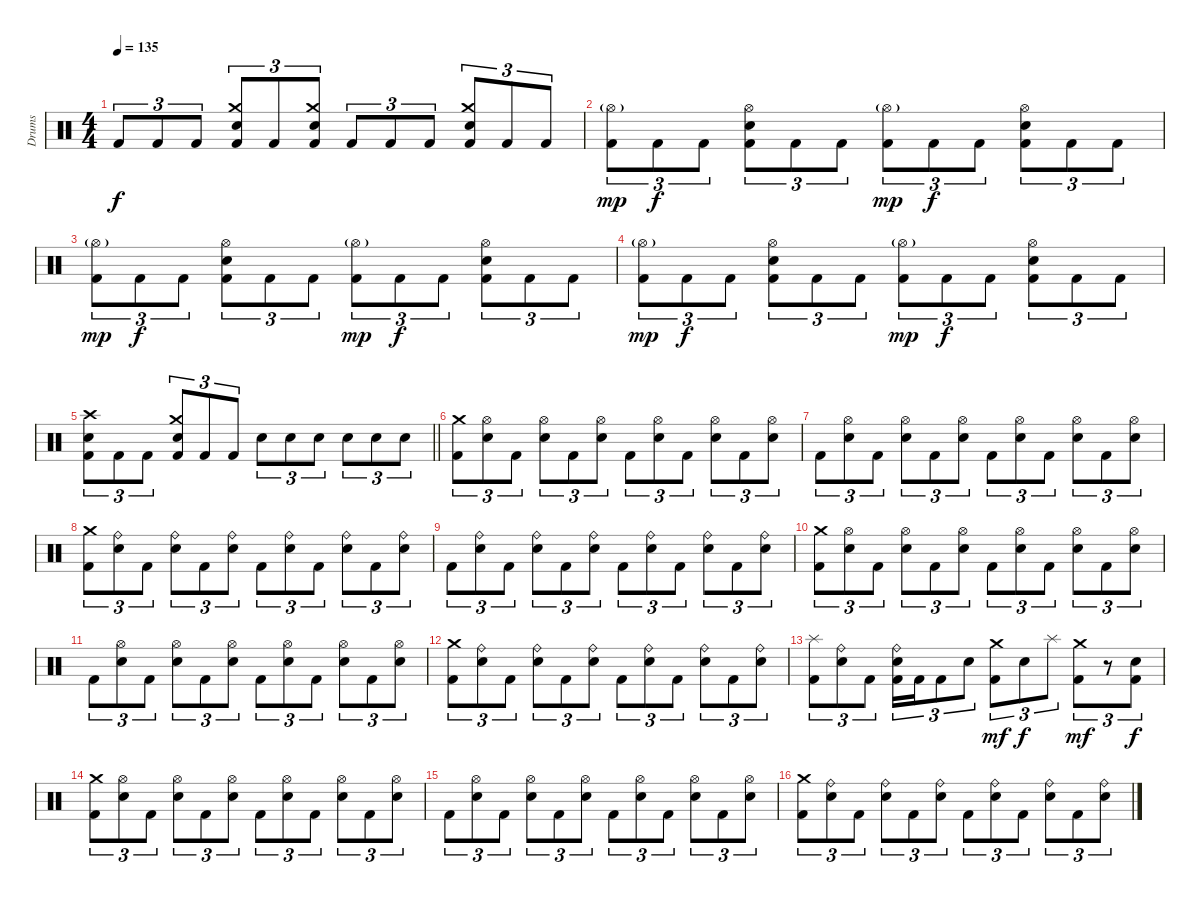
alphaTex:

\track ("Drums" "Drums") {instrument percussion}
\staff {score}
\articulation defaults
\ts (4 4)
\tempo 135
\clef neutral
\ks c "Kick (hit) 2".8{tu (3 2) dy f} "Kick (hit) 2".8{tu (3 2)} "Kick (hit) 2".8{tu (3 2)}
("Crash medium (hit)" "Electric Snare (hit)" "Kick (hit) 2").8{tu (3 2)} "Kick (hit) 2".8{tu (3 2)} ("Crash medium (hit)" "Electric Snare (hit)" "Kick (hit) 2").8{tu (3 2)} "Kick (hit) 2".8{tu (3 2)} "Kick (hit) 2".8{tu (3 2)} "Kick (hit) 2".8{tu (3 2)} ("Crash medium (hit)" "Electric Snare (hit)" "Kick (hit) 2").8{tu (3 2)} "Kick (hit) 2".8{tu (3 2)} "Kick (hit) 2".8{tu (3 2)} |
("Hi-Hat (open)"{g} "Kick (hit) 2").8{tu (3 2) dy mp} "Kick (hit) 2".8{tu (3 2) dy f} "Kick (hit) 2".8{tu (3 2)} ("Hi-Hat (open)" "Electric Snare (hit)" "Kick (hit) 2").8{tu (3 2)} "Kick (hit) 2".8{tu (3 2)} "Kick (hit) 2".8{tu (3 2)} ("Hi-Hat (open)"{g} "Kick (hit) 2").8{tu (3 2) dy mp} "Kick (hit) 2".8{tu (3 2) dy f} "Kick (hit) 2".8{tu (3 2)} ("Hi-Hat (open)" "Electric Snare (hit)" "Kick (hit) 2").8{tu (3 2)} "Kick (hit) 2".8{tu (3 2)} "Kick (hit) 2".8{tu (3 2)} |
("Hi-Hat (open)"{g} "Kick (hit) 2").8{tu (3 2) dy mp} "Kick (hit) 2".8{tu (3 2) dy f} "Kick (hit) 2".8{tu (3 2)} ("Hi-Hat (open)" "Electric Snare (hit)" "Kick (hit) 2").8{tu (3 2)} "Kick (hit) 2".8{tu (3 2)} "Kick (hit) 2".8{tu (3 2)} ("Hi-Hat (open)"{g} "Kick (hit) 2").8{tu (3 2) dy mp} "Kick (hit) 2".8{tu (3 2) dy f} "Kick (hit) 2".8{tu (3 2)} ("Hi-Hat (open)" "Electric Snare (hit)" "Kick (hit) 2").8{tu (3 2)} "Kick (hit) 2".8{tu (3 2)} "Kick (hit) 2".8{tu (3 2)} |
("Hi-Hat (open)"{g} "Kick (hit) 2").8{tu (3 2) dy mp} "Kick (hit) 2".8{tu (3 2) dy f} "Kick (hit) 2".8{tu (3 2)} ("Hi-Hat (open)" "Electric Snare (hit)" "Kick (hit) 2").8{tu (3 2)} "Kick (hit) 2".8{tu (3 2)} "Kick (hit) 2".8{tu (3 2)} ("Hi-Hat (open)"{g} "Kick (hit) 2").8{tu (3 2) dy mp} "Kick (hit) 2".8{tu (3 2) dy f} "Kick (hit) 2".8{tu (3 2)} ("Hi-Hat (open)" "Electric Snare (hit)" "Kick (hit) 2").8{tu (3 2)} "Kick (hit) 2".8{tu (3 2)} "Kick (hit) 2".8{tu (3 2)} |
\barLineRight lightlight
("Crash high (hit)" "Electric Snare (hit)" "Kick (hit) 2").8{tu (3 2)} "Kick (hit) 2".8{tu (3 2)} "Kick (hit) 2".8{tu (3 2)} ("Crash medium (hit)" "Electric Snare (hit)" "Kick (hit) 2").8{tu (3 2)} "Kick (hit) 2".8{tu (3 2)} "Kick (hit) 2".8{tu (3 2)} "Electric Snare (hit)".8{tu (3 2)} "Electric Snare (hit)".8{tu (3 2)} "Electric Snare (hit)".8{tu (3 2)} "Electric Snare (hit)".8{tu (3 2)} "Electric Snare (hit)".8{tu (3 2)} "Electric Snare (hit)".8{tu (3 2)} |
("Crash medium (hit)" "Kick (hit) 2").8{tu (3 2)} ("Hi-Hat (open)" "Electric Snare (hit)").8{tu (3 2)} "Kick (hit) 2".8{tu (3 2)} ("Hi-Hat (open)" "Electric Snare (hit)").8{tu (3 2)} "Kick (hit) 2".8{tu (3 2)} ("Hi-Hat (open)" "Electric Snare (hit)").8{tu (3 2)} "Kick (hit) 2".8{tu (3 2)} ("Hi-Hat (open)" "Electric Snare (hit)").8{tu (3 2)} "Kick (hit) 2".8{tu (3 2)} ("Hi-Hat (open)" "Electric Snare (hit)").8{tu (3 2)} "Kick (hit) 2".8{tu (3 2)} ("Hi-Hat (open)" "Electric Snare (hit)").8{tu (3 2)} |
"Kick (hit) 2".8{tu (3 2)} ("Hi-Hat (open)" "Electric Snare (hit)").8{tu (3 2)} "Kick (hit) 2".8{tu (3 2)} ("Hi-Hat (open)" "Electric Snare (hit)").8{tu (3 2)} "Kick (hit) 2".8{tu (3 2)} ("Hi-Hat (open)" "Electric Snare (hit)").8{tu (3 2)} "Kick (hit) 2".8{tu (3 2)} ("Hi-Hat (open)" "Electric Snare (hit)").8{tu (3 2)} "Kick (hit) 2".8{tu (3 2)} ("Hi-Hat (open)" "Electric Snare (hit)").8{tu (3 2)} "Kick (hit) 2".8{tu (3 2)} ("Hi-Hat (open)" "Electric Snare (hit)").8{tu (3 2)} |
("Crash medium (hit)" "Kick (hit) 2").8{tu (3 2)} ("Ride (bell)" "Electric Snare (hit)").8{tu (3 2)} "Kick (hit) 2".8{tu (3 2)} ("Ride (bell)" "Electric Snare (hit)").8{tu (3 2)} "Kick (hit) 2".8{tu (3 2)} ("Ride (bell)" "Electric Snare (hit)").8{tu (3 2)} "Kick (hit) 2".8{tu (3 2)} ("Ride (bell)" "Electric Snare (hit)").8{tu (3 2)} "Kick (hit) 2".8{tu (3 2)} ("Ride (bell)" "Electric Snare (hit)").8{tu (3 2)} "Kick (hit) 2".8{tu (3 2)} ("Ride (bell)" "Electric Snare (hit)").8{tu (3 2)} |
"Kick (hit) 2".8{tu (3 2)} ("Ride (bell)" "Electric Snare (hit)").8{tu (3 2)} "Kick (hit) 2".8{tu (3 2)} ("Ride (bell)" "Electric Snare (hit)").8{tu (3 2)} "Kick (hit) 2".8{tu (3 2)} ("Ride (bell)" "Electric Snare (hit)").8{tu (3 2)} "Kick (hit) 2".8{tu (3 2)} ("Ride (bell)" "Electric Snare (hit)").8{tu (3 2)} "Kick (hit) 2".8{tu (3 2)} ("Ride (bell)" "Electric Snare (hit)").8{tu (3 2)} "Kick (hit) 2".8{tu (3 2)} ("Ride (bell)" "Electric Snare (hit)").8{tu (3 2)} |
("Crash medium (hit)" "Kick (hit) 2").8{tu (3 2)} ("Hi-Hat (open)" "Electric Snare (hit)").8{tu (3 2)} "Kick (hit) 2".8{tu (3 2)} ("Hi-Hat (open)" "Electric Snare (hit)").8{tu (3 2)} "Kick (hit) 2".8{tu (3 2)} ("Hi-Hat (open)" "Electric Snare (hit)").8{tu (3 2)} "Kick (hit) 2".8{tu (3 2)} ("Hi-Hat (open)" "Electric Snare (hit)").8{tu (3 2)} "Kick (hit) 2".8{tu (3 2)} ("Hi-Hat (open)" "Electric Snare (hit)").8{tu (3 2)} "Kick (hit) 2".8{tu (3 2)} ("Hi-Hat (open)" "Electric Snare (hit)").8{tu (3 2)} |
"Kick (hit) 2".8{tu (3 2)} ("Hi-Hat (open)" "Electric Snare (hit)").8{tu (3 2)} "Kick (hit) 2".8{tu (3 2)} ("Hi-Hat (open)" "Electric Snare (hit)").8{tu (3 2)} "Kick (hit) 2".8{tu (3 2)} ("Hi-Hat (open)" "Electric Snare (hit)").8{tu (3 2)} "Kick (hit) 2".8{tu (3 2)} ("Hi-Hat (open)" "Electric Snare (hit)").8{tu (3 2)} "Kick (hit) 2".8{tu (3 2)} ("Hi-Hat (open)" "Electric Snare (hit)").8{tu (3 2)} "Kick (hit) 2".8{tu (3 2)} ("Hi-Hat (open)" "Electric Snare (hit)").8{tu (3 2)} |
("Crash medium (hit)" "Kick (hit) 2").8{tu (3 2)} ("Ride (bell)" "Electric Snare (hit)").8{tu (3 2)} "Kick (hit) 2".8{tu (3 2)} ("Ride (bell)" "Electric Snare (hit)").8{tu (3 2)} "Kick (hit) 2".8{tu (3 2)} ("Ride (bell)" "Electric Snare (hit)").8{tu (3 2)} "Kick (hit) 2".8{tu (3 2)} ("Ride (bell)" "Electric Snare (hit)").8{tu (3 2)} "Kick (hit) 2".8{tu (3 2)} ("Ride (bell)" "Electric Snare (hit)").8{tu (3 2)} "Kick (hit) 2".8{tu (3 2)} ("Ride (bell)" "Electric Snare (hit)").8{tu (3 2)} |
("Splash (hit)" "Kick (hit) 2").8{tu (3 2)} ("Ride (bell)" "Electric Snare (hit)").8{tu (3 2)} "Kick (hit) 2".8{tu (3 2)} ("Ride (bell)" "Electric Snare (hit)" "Kick (hit) 2").16{tu (3 2)} "Kick (hit) 2".16{tu (3 2)} "Kick (hit) 2".8{tu (3 2)} "Electric Snare (hit)".8{tu (3 2)} ("Crash medium (hit)" "Kick (hit) 2").8{tu (3 2) dy mf} "Electric Snare (hit)".8{tu (3 2) dy f} "Splash (hit)".8{tu (3 2)} ("Crash medium (hit)" "Kick (hit) 2").8{tu (3 2) dy mf} r.8{tu (3 2)} ("Electric Snare (hit)" "Kick (hit) 2").8{tu (3 2) dy f} |
("Crash medium (hit)" "Kick (hit) 2").8{tu (3 2)} ("Hi-Hat (open)" "Electric Snare (hit)").8{tu (3 2)} "Kick (hit) 2".8{tu (3 2)} ("Hi-Hat (open)" "Electric Snare (hit)").8{tu (3 2)} "Kick (hit) 2".8{tu (3 2)} ("Hi-Hat (open)" "Electric Snare (hit)").8{tu (3 2)} "Kick (hit) 2".8{tu (3 2)} ("Hi-Hat (open)" "Electric Snare (hit)").8{tu (3 2)} "Kick (hit) 2".8{tu (3 2)} ("Hi-Hat (open)" "Electric Snare (hit)").8{tu (3 2)} "Kick (hit) 2".8{tu (3 2)} ("Hi-Hat (open)" "Electric Snare (hit)").8{tu (3 2)} |
"Kick (hit) 2".8{tu (3 2)} ("Hi-Hat (open)" "Electric Snare (hit)").8{tu (3 2)} "Kick (hit) 2".8{tu (3 2)} ("Hi-Hat (open)" "Electric Snare (hit)").8{tu (3 2)} "Kick (hit) 2".8{tu (3 2)} ("Hi-Hat (open)" "Electric Snare (hit)").8{tu (3 2)} "Kick (hit) 2".8{tu (3 2)} ("Hi-Hat (open)" "Electric Snare (hit)").8{tu (3 2)} "Kick (hit) 2".8{tu (3 2)} ("Hi-Hat (open)" "Electric Snare (hit)").8{tu (3 2)} "Kick (hit) 2".8{tu (3 2)} ("Hi-Hat (open)" "Electric Snare (hit)").8{tu (3 2)} |
("Crash medium (hit)" "Kick (hit) 2").8{tu (3 2)} ("Ride (bell)" "Electric Snare (hit)").8{tu (3 2)} "Kick (hit) 2".8{tu (3 2)} ("Ride (bell)" "Electric Snare (hit)").8{tu (3 2)} "Kick (hit) 2".8{tu (3 2)} ("Ride (bell)" "Electric Snare (hit)").8{tu (3 2)} "Kick (hit) 2".8{tu (3 2)} ("Ride (bell)" "Electric Snare (hit)").8{tu (3 2)} "Kick (hit) 2".8{tu (3 2)} ("Ride (bell)" "Electric Snare (hit)").8{tu (3 2)} "Kick (hit) 2".8{tu (3 2)} ("Ride (bell)" "Electric Snare (hit)").8{tu (3 2)}
